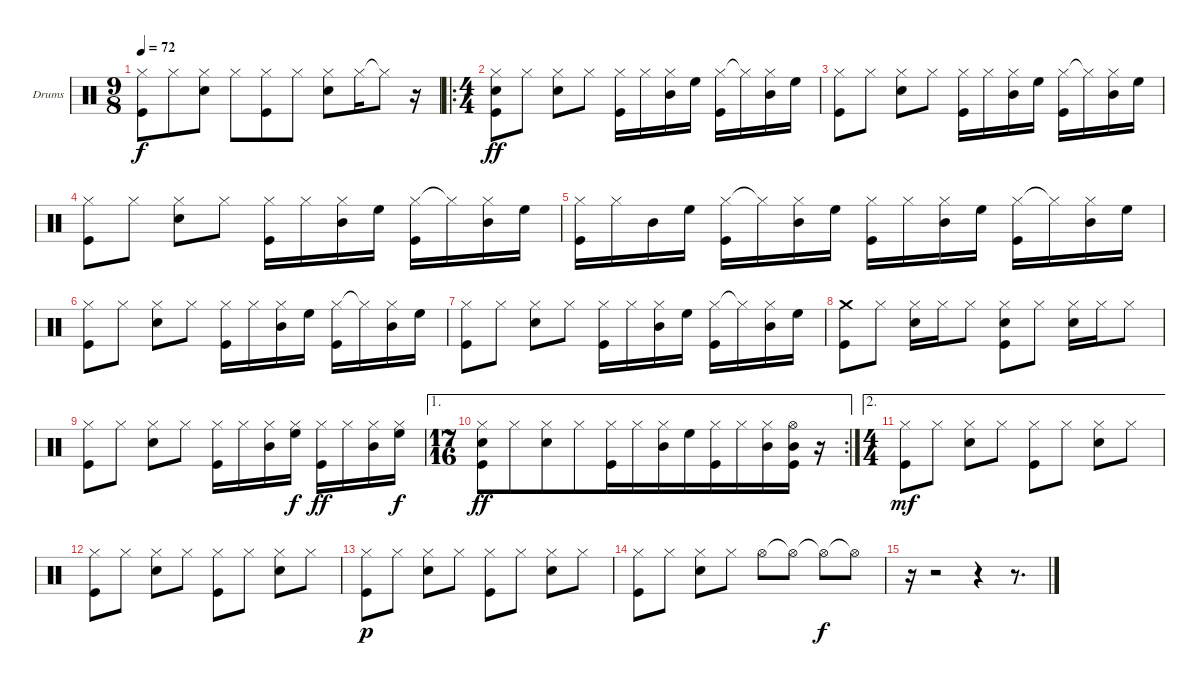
\bracketExtendMode groupsimilarinstruments
\firstSystemTrackNameOrientation horizontal
\otherSystemsTrackNameOrientation horizontal
\track ("Drumkit" "Drums") {instrument percussion}
\staff {score}
\articulation defaults
\ts (9 8)
\beaming (8 3 3 3)
\tempo 72
\clef neutral
\ks c
("Hi-Hat (closed)" "Kick (hit)").8{dy f} "Hi-Hat (closed)".8 ("Hi-Hat (closed)" "Snare (hit) 2").8 "Hi-Hat (closed)".8 ("Hi-Hat (closed)" "Kick (hit)").8 "Hi-Hat (closed)".8 ("Hi-Hat (closed)" "Snare (hit) 2").8 "Hi-Hat (closed)".16 "Hi-Hat (closed)"{t}.8 r.16 |
\ro
\ts (4 4)
\beaming (8 2 2 2 2)
("Hi-Hat (closed)" "Snare (hit) 2" "Kick (hit)").8{dy ff} "Hi-Hat (closed)".8 ("Hi-Hat (closed)" "Snare (hit) 2").8 "Hi-Hat (closed)".8 ("Hi-Hat (closed)" "Kick (hit)").16 "Hi-Hat (closed)".16 ("Hi-Hat (closed)" "Mid Tom (hit)").16 "High Floor Tom (hit)".16 ("Hi-Hat (closed)" "Kick (hit)").16 "Hi-Hat (closed)"{t}.16 ("Hi-Hat (closed)" "Mid Tom (hit)").16 "High Floor Tom (hit)".16 |
("Hi-Hat (closed)" "Kick (hit)").8 "Hi-Hat (closed)".8 ("Hi-Hat (closed)" "Snare (hit) 2").8 "Hi-Hat (closed)".8 ("Hi-Hat (closed)" "Kick (hit)").16 "Hi-Hat (closed)".16 ("Hi-Hat (closed)" "Mid Tom (hit)").16 "High Floor Tom (hit)".16 ("Hi-Hat (closed)" "Kick (hit)").16 "Hi-Hat (closed)"{t}.16 ("Hi-Hat (closed)" "Mid Tom (hit)").16 "High Floor Tom (hit)".16 |
("Hi-Hat (closed)" "Kick (hit)").8 "Hi-Hat (closed)".8 ("Hi-Hat (closed)" "Snare (hit) 2").8 "Hi-Hat (closed)".8 ("Hi-Hat (closed)" "Kick (hit)").16 "Hi-Hat (closed)".16 ("Hi-Hat (closed)" "Mid Tom (hit)").16 "High Floor Tom (hit)".16 ("Hi-Hat (closed)" "Kick (hit)").16 "Hi-Hat (closed)"{t}.16 ("Hi-Hat (closed)" "Mid Tom (hit)").16 "High Floor Tom (hit)".16 |
("Hi-Hat (closed)" "Kick (hit)").16 "Hi-Hat (closed)".16 "Mid Tom (hit)".16 "High Floor Tom (hit)".16 ("Hi-Hat (closed)" "Kick (hit)").16 "Hi-Hat (closed)"{t}.16 ("Hi-Hat (closed)" "Mid Tom (hit)").16 "High Floor Tom (hit)".16 ("Hi-Hat (closed)" "Kick (hit)").16 "Hi-Hat (closed)".16 ("Hi-Hat (closed)" "Mid Tom (hit)").16 "High Floor Tom (hit)".16 ("Hi-Hat (closed)" "Kick (hit)").16 "Hi-Hat (closed)"{t}.16 ("Hi-Hat (closed)" "Mid Tom (hit)").16 "High Floor Tom (hit)".16 |
("Hi-Hat (closed)" "Kick (hit)").8 "Hi-Hat (closed)".8 ("Hi-Hat (closed)" "Snare (hit) 2").8 "Hi-Hat (closed)".8 ("Hi-Hat (closed)" "Kick (hit)").16 "Hi-Hat (closed)".16 ("Hi-Hat (closed)" "Mid Tom (hit)").16 "High Floor Tom (hit)".16 ("Hi-Hat (closed)" "Kick (hit)").16 "Hi-Hat (closed)"{t}.16 ("Hi-Hat (closed)" "Mid Tom (hit)").16 "High Floor Tom (hit)".16 |
("Hi-Hat (closed)" "Kick (hit)").8 "Hi-Hat (closed)".8 ("Hi-Hat (closed)" "Snare (hit) 2").8 "Hi-Hat (closed)".8 ("Hi-Hat (closed)" "Kick (hit)").16 "Hi-Hat (closed)".16 ("Hi-Hat (closed)" "Mid Tom (hit)").16 "High Floor Tom (hit)".16 ("Hi-Hat (closed)" "Kick (hit)").16 "Hi-Hat (closed)"{t}.16 ("Hi-Hat (closed)" "Mid Tom (hit)").16 "High Floor Tom (hit)".16 |
("Crash medium (hit)" "Kick (hit)").8 "Hi-Hat (closed)".8 ("Hi-Hat (closed)" "Snare (hit) 2").16 "Hi-Hat (closed)".16 "Hi-Hat (closed)".8 ("Hi-Hat (closed)" "Snare (hit) 2" "Kick (hit)").8 "Hi-Hat (closed)".8 ("Hi-Hat (closed)" "Snare (hit) 2").16 "Hi-Hat (closed)".16 "Hi-Hat (closed)".8 |
("Hi-Hat (closed)" "Kick (hit)").8 "Hi-Hat (closed)".8 ("Hi-Hat (closed)" "Snare (hit) 2").8 "Hi-Hat (closed)".8 ("Hi-Hat (closed)" "Kick (hit)").16 "Hi-Hat (closed)".16 ("Hi-Hat (closed)" "Mid Tom (hit)").16 ("Hi-Hat (closed)" "High Floor Tom (hit)").16{dy f} ("Hi-Hat (closed)" "Kick (hit)").16{dy ff} "Hi-Hat (closed)".16 ("Hi-Hat (closed)" "Mid Tom (hit)").16 ("Hi-Hat (closed)" "High Floor Tom (hit)").16{dy f} |
\ae 1
\rc 2
\ts (17 16)
\beaming (8 8)
("Hi-Hat (closed)" "Snare (hit) 2" "Kick (hit)").8{dy ff} "Hi-Hat (closed)".8 ("Hi-Hat (closed)" "Snare (hit) 2").8 "Hi-Hat (closed)".8 ("Hi-Hat (closed)" "Kick (hit)").16 "Hi-Hat (closed)".16 ("Hi-Hat (closed)" "Mid Tom (hit)").16 "High Floor Tom (hit)".16 ("Hi-Hat (closed)" "Kick (hit)").16 "Hi-Hat (closed)".16 ("Hi-Hat (closed)" "Mid Tom (hit)").16 ("Hi-Hat (open)" "Mid Tom (hit)" "Kick (hit)").16 r.16 |
\ae 2
\ts (4 4)
\beaming (8 2 2 2 2)
("Hi-Hat (closed)" "Kick (hit)").8{dy mf} "Hi-Hat (closed)".8 ("Hi-Hat (closed)" "Snare (hit) 2").8 "Hi-Hat (closed)".8 ("Hi-Hat (closed)" "Kick (hit)").8 "Hi-Hat (closed)".8 ("Hi-Hat (closed)" "Snare (hit) 2").8 "Hi-Hat (closed)".8 |
("Hi-Hat (closed)" "Kick (hit)").8 "Hi-Hat (closed)".8 ("Hi-Hat (closed)" "Snare (hit) 2").8 "Hi-Hat (closed)".8 ("Hi-Hat (closed)" "Kick (hit)").8 "Hi-Hat (closed)".8 ("Hi-Hat (closed)" "Snare (hit) 2").8 "Hi-Hat (closed)".8 |
("Hi-Hat (closed)" "Kick (hit)").8{dy p} "Hi-Hat (closed)".8 ("Hi-Hat (closed)" "Snare (hit) 2").8 "Hi-Hat (closed)".8 ("Hi-Hat (closed)" "Kick (hit)").8 "Hi-Hat (closed)".8 ("Hi-Hat (closed)" "Snare (hit) 2").8 "Hi-Hat (closed)".8 |
("Hi-Hat (closed)" "Kick (hit)").8 "Hi-Hat (closed)".8 ("Hi-Hat (closed)" "Snare (hit) 2").8 "Hi-Hat (closed)".8 "Hi-Hat (open)".8 "Hi-Hat (open)"{t}.8 "Hi-Hat (open)"{t}.8{dy f} "Hi-Hat (open)"{t}.8 |
r.16 r.2 r.4 r.8{d}
